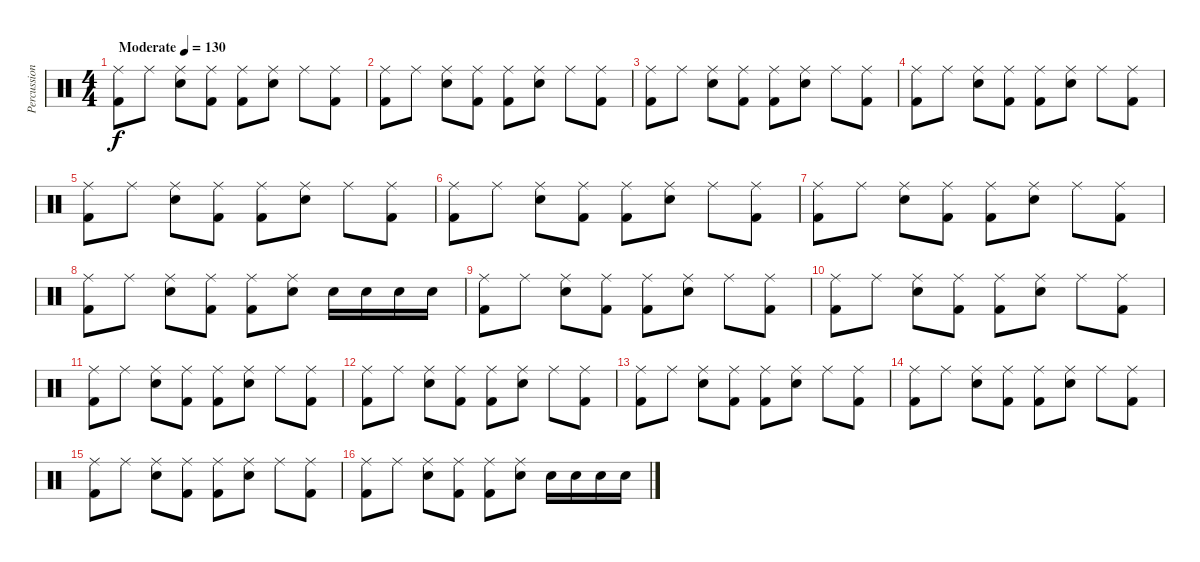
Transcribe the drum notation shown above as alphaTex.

\track ("Percussion" "Percussion") {instrument percussion}
\staff {score}
\articulation defaults
\ts (4 4)
\tempo (130 "Moderate")
\clef neutral
\ks c
("Kick (hit) 2" "Ride (middle)").8{dy f} "Ride (middle)".8 ("Snare (hit) 2" "Ride (middle)").8 ("Kick (hit) 2" "Ride (middle)").8 ("Kick (hit) 2" "Ride (middle)").8 ("Snare (hit) 2" "Ride (middle)").8 "Ride (middle)".8 ("Kick (hit) 2" "Ride (middle)").8 |
("Kick (hit) 2" "Ride (middle)").8 "Ride (middle)".8 ("Snare (hit) 2" "Ride (middle)").8 ("Kick (hit) 2" "Ride (middle)").8 ("Kick (hit) 2" "Ride (middle)").8 ("Snare (hit) 2" "Ride (middle)").8 "Ride (middle)".8 ("Kick (hit) 2" "Ride (middle)").8 |
("Kick (hit) 2" "Ride (middle)").8 "Ride (middle)".8 ("Snare (hit) 2" "Ride (middle)").8 ("Kick (hit) 2" "Ride (middle)").8 ("Kick (hit) 2" "Ride (middle)").8 ("Snare (hit) 2" "Ride (middle)").8 "Ride (middle)".8 ("Kick (hit) 2" "Ride (middle)").8 |
("Kick (hit) 2" "Ride (middle)").8 "Ride (middle)".8 ("Snare (hit) 2" "Ride (middle)").8 ("Kick (hit) 2" "Ride (middle)").8 ("Kick (hit) 2" "Ride (middle)").8 ("Snare (hit) 2" "Ride (middle)").8 "Ride (middle)".8 ("Kick (hit) 2" "Ride (middle)").8 |
("Kick (hit) 2" "Ride (middle)").8 "Ride (middle)".8 ("Snare (hit) 2" "Ride (middle)").8 ("Kick (hit) 2" "Ride (middle)").8 ("Kick (hit) 2" "Ride (middle)").8 ("Snare (hit) 2" "Ride (middle)").8 "Ride (middle)".8 ("Kick (hit) 2" "Ride (middle)").8 |
("Kick (hit) 2" "Ride (middle)").8 "Ride (middle)".8 ("Snare (hit) 2" "Ride (middle)").8 ("Kick (hit) 2" "Ride (middle)").8 ("Kick (hit) 2" "Ride (middle)").8 ("Snare (hit) 2" "Ride (middle)").8 "Ride (middle)".8 ("Kick (hit) 2" "Ride (middle)").8 |
("Kick (hit) 2" "Ride (middle)").8 "Ride (middle)".8 ("Snare (hit) 2" "Ride (middle)").8 ("Kick (hit) 2" "Ride (middle)").8 ("Kick (hit) 2" "Ride (middle)").8 ("Snare (hit) 2" "Ride (middle)").8 "Ride (middle)".8 ("Kick (hit) 2" "Ride (middle)").8 |
("Kick (hit) 2" "Ride (middle)").8 "Ride (middle)".8 ("Snare (hit) 2" "Ride (middle)").8 ("Kick (hit) 2" "Ride (middle)").8 ("Kick (hit) 2" "Ride (middle)").8 ("Snare (hit) 2" "Ride (middle)").8 "Snare (hit) 2".16 "Snare (hit) 2".16 "Snare (hit) 2".16 "Snare (hit) 2".16 |
("Kick (hit) 2" "Ride (middle)").8 "Ride (middle)".8 ("Snare (hit) 2" "Ride (middle)").8 ("Kick (hit) 2" "Ride (middle)").8 ("Kick (hit) 2" "Ride (middle)").8 ("Snare (hit) 2" "Ride (middle)").8 "Ride (middle)".8 ("Kick (hit) 2" "Ride (middle)").8 |
("Kick (hit) 2" "Ride (middle)").8 "Ride (middle)".8 ("Snare (hit) 2" "Ride (middle)").8 ("Kick (hit) 2" "Ride (middle)").8 ("Kick (hit) 2" "Ride (middle)").8 ("Snare (hit) 2" "Ride (middle)").8 "Ride (middle)".8 ("Kick (hit) 2" "Ride (middle)").8 |
("Kick (hit) 2" "Ride (middle)").8 "Ride (middle)".8 ("Snare (hit) 2" "Ride (middle)").8 ("Kick (hit) 2" "Ride (middle)").8 ("Kick (hit) 2" "Ride (middle)").8 ("Snare (hit) 2" "Ride (middle)").8 "Ride (middle)".8 ("Kick (hit) 2" "Ride (middle)").8 |
("Kick (hit) 2" "Ride (middle)").8 "Ride (middle)".8 ("Snare (hit) 2" "Ride (middle)").8 ("Kick (hit) 2" "Ride (middle)").8 ("Kick (hit) 2" "Ride (middle)").8 ("Snare (hit) 2" "Ride (middle)").8 "Ride (middle)".8 ("Kick (hit) 2" "Ride (middle)").8 |
("Kick (hit) 2" "Ride (middle)").8 "Ride (middle)".8 ("Snare (hit) 2" "Ride (middle)").8 ("Kick (hit) 2" "Ride (middle)").8 ("Kick (hit) 2" "Ride (middle)").8 ("Snare (hit) 2" "Ride (middle)").8 "Ride (middle)".8 ("Kick (hit) 2" "Ride (middle)").8 |
("Kick (hit) 2" "Ride (middle)").8 "Ride (middle)".8 ("Snare (hit) 2" "Ride (middle)").8 ("Kick (hit) 2" "Ride (middle)").8 ("Kick (hit) 2" "Ride (middle)").8 ("Snare (hit) 2" "Ride (middle)").8 "Ride (middle)".8 ("Kick (hit) 2" "Ride (middle)").8 |
("Kick (hit) 2" "Ride (middle)").8 "Ride (middle)".8 ("Snare (hit) 2" "Ride (middle)").8 ("Kick (hit) 2" "Ride (middle)").8 ("Kick (hit) 2" "Ride (middle)").8 ("Snare (hit) 2" "Ride (middle)").8 "Ride (middle)".8 ("Kick (hit) 2" "Ride (middle)").8 |
("Kick (hit) 2" "Ride (middle)").8 "Ride (middle)".8 ("Snare (hit) 2" "Ride (middle)").8 ("Kick (hit) 2" "Ride (middle)").8 ("Kick (hit) 2" "Ride (middle)").8 ("Snare (hit) 2" "Ride (middle)").8 "Snare (hit) 2".16 "Snare (hit) 2".16 "Snare (hit) 2".16 "Snare (hit) 2".16
